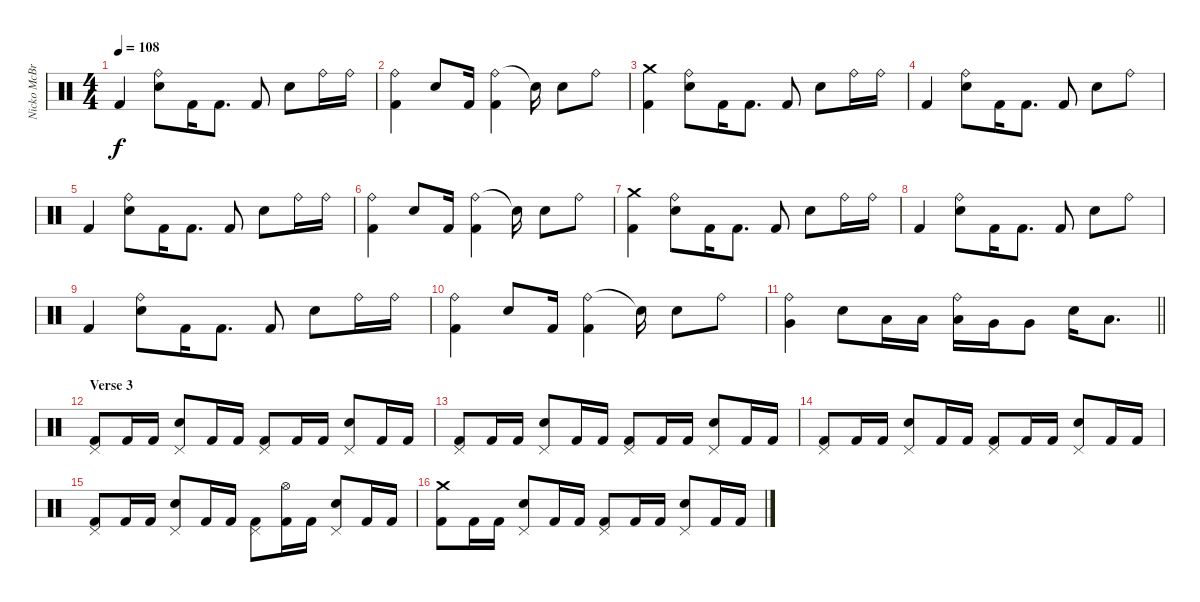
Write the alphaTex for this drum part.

\track ("Nicko McBrain" "Nicko McBr") {instrument percussion}
\staff {score}
\articulation defaults
\ts (4 4)
\tempo 108
\clef neutral
\ks c "Kick (hit) 2".4{dy f}
("Ride (bell)" "Electric Snare (hit)").8 "Kick (hit) 2".16 "Kick (hit) 2".8{d} "Kick (hit) 2".8 "Electric Snare (hit)".8 "Ride (bell)".16 "Ride (bell)".16 |
("Ride (bell)" "Kick (hit) 2").4 "Electric Snare (hit)".8 "Kick (hit) 2".16 ("Ride (bell)" "Kick (hit) 2").4 "Snare (hit)"{t}.16 "Electric Snare (hit)".8 "Ride (bell)".8 |
("Crash medium (hit)" "Kick (hit) 2").4 ("Ride (bell)" "Electric Snare (hit)").8 "Kick (hit) 2".16 "Kick (hit) 2".8{d} "Kick (hit) 2".8 "Electric Snare (hit)".8 "Ride (bell)".16 "Ride (bell)".16 |
"Kick (hit) 2".4 ("Ride (bell)" "Electric Snare (hit)").8 "Kick (hit) 2".16 "Kick (hit) 2".8{d} "Kick (hit) 2".8 "Electric Snare (hit)".8 "Ride (bell)".8 |
"Kick (hit) 2".4 ("Ride (bell)" "Electric Snare (hit)").8 "Kick (hit) 2".16 "Kick (hit) 2".8{d} "Kick (hit) 2".8 "Electric Snare (hit)".8 "Ride (bell)".16 "Ride (bell)".16 |
("Ride (bell)" "Kick (hit) 2").4 "Electric Snare (hit)".8 "Kick (hit) 2".16 ("Ride (bell)" "Kick (hit) 2").4 "Snare (hit)"{t}.16 "Electric Snare (hit)".8 "Ride (bell)".8 |
("Crash medium (hit)" "Kick (hit) 2").4 ("Ride (bell)" "Electric Snare (hit)").8 "Kick (hit) 2".16 "Kick (hit) 2".8{d} "Kick (hit) 2".8 "Electric Snare (hit)".8 "Ride (bell)".16 "Ride (bell)".16 |
"Kick (hit) 2".4 ("Ride (bell)" "Electric Snare (hit)").8 "Kick (hit) 2".16 "Kick (hit) 2".8{d} "Kick (hit) 2".8 "Electric Snare (hit)".8 "Ride (bell)".8 |
"Kick (hit) 2".4 ("Ride (bell)" "Electric Snare (hit)").8 "Kick (hit) 2".16 "Kick (hit) 2".8{d} "Kick (hit) 2".8 "Electric Snare (hit)".8 "Ride (bell)".16 "Ride (bell)".16 |
("Ride (bell)" "Kick (hit) 2").4 "Electric Snare (hit)".8 "Kick (hit) 2".16 ("Ride (bell)" "Kick (hit) 2").4 "Snare (hit)"{t}.16 "Electric Snare (hit)".8 "Ride (bell)".8 |
\barLineRight lightlight
("Ride (bell)" "Very Low Tom (hit)").4 "Electric Snare (hit)".8 "Low Tom (hit)".16 "Low Tom (hit)".16 ("Ride (bell)" "Low Tom (hit)").16 "Very Low Tom (hit)".16 "Very Low Tom (hit)".8 "Electric Snare (hit)".16 "Low Floor Tom (hit)".8{d} |
\section ("" "Verse 3")
("Pedal Hi-Hat (hit)" "Kick (hit) 2").8 "Kick (hit) 2".16 "Kick (hit) 2".16 ("Pedal Hi-Hat (hit)" "Electric Snare (hit)").8 "Kick (hit) 2".16 "Kick (hit) 2".16 ("Pedal Hi-Hat (hit)" "Kick (hit) 2").8 "Kick (hit) 2".16 "Kick (hit) 2".16 ("Pedal Hi-Hat (hit)" "Electric Snare (hit)").8 "Kick (hit) 2".16 "Kick (hit) 2".16 |
("Pedal Hi-Hat (hit)" "Kick (hit) 2").8 "Kick (hit) 2".16 "Kick (hit) 2".16 ("Pedal Hi-Hat (hit)" "Electric Snare (hit)").8 "Kick (hit) 2".16 "Kick (hit) 2".16 ("Pedal Hi-Hat (hit)" "Kick (hit) 2").8 "Kick (hit) 2".16 "Kick (hit) 2".16 ("Pedal Hi-Hat (hit)" "Electric Snare (hit)").8 "Kick (hit) 2".16 "Kick (hit) 2".16 |
("Pedal Hi-Hat (hit)" "Kick (hit) 2").8 "Kick (hit) 2".16 "Kick (hit) 2".16 ("Pedal Hi-Hat (hit)" "Electric Snare (hit)").8 "Kick (hit) 2".16 "Kick (hit) 2".16 ("Pedal Hi-Hat (hit)" "Kick (hit) 2").8 "Kick (hit) 2".16 "Kick (hit) 2".16 ("Pedal Hi-Hat (hit)" "Electric Snare (hit)").8 "Kick (hit) 2".16 "Kick (hit) 2".16 |
("Pedal Hi-Hat (hit)" "Kick (hit) 2").8 "Kick (hit) 2".16 "Kick (hit) 2".16 ("Pedal Hi-Hat (hit)" "Electric Snare (hit)").8 "Kick (hit) 2".16 "Kick (hit) 2".16 ("Pedal Hi-Hat (hit)" "Kick (hit) 2").8 ("Hi-Hat (open)" "Kick (hit) 2").16 "Kick (hit) 2".16 ("Pedal Hi-Hat (hit)" "Electric Snare (hit)").8 "Kick (hit) 2".16 "Kick (hit) 2".16 |
("Crash medium (hit)" "Kick (hit) 2").8 "Kick (hit) 2".16 "Kick (hit) 2".16 ("Pedal Hi-Hat (hit)" "Electric Snare (hit)").8 "Kick (hit) 2".16 "Kick (hit) 2".16 ("Pedal Hi-Hat (hit)" "Kick (hit) 2").8 "Kick (hit) 2".16 "Kick (hit) 2".16 ("Pedal Hi-Hat (hit)" "Electric Snare (hit)").8 "Kick (hit) 2".16 "Kick (hit) 2".16
